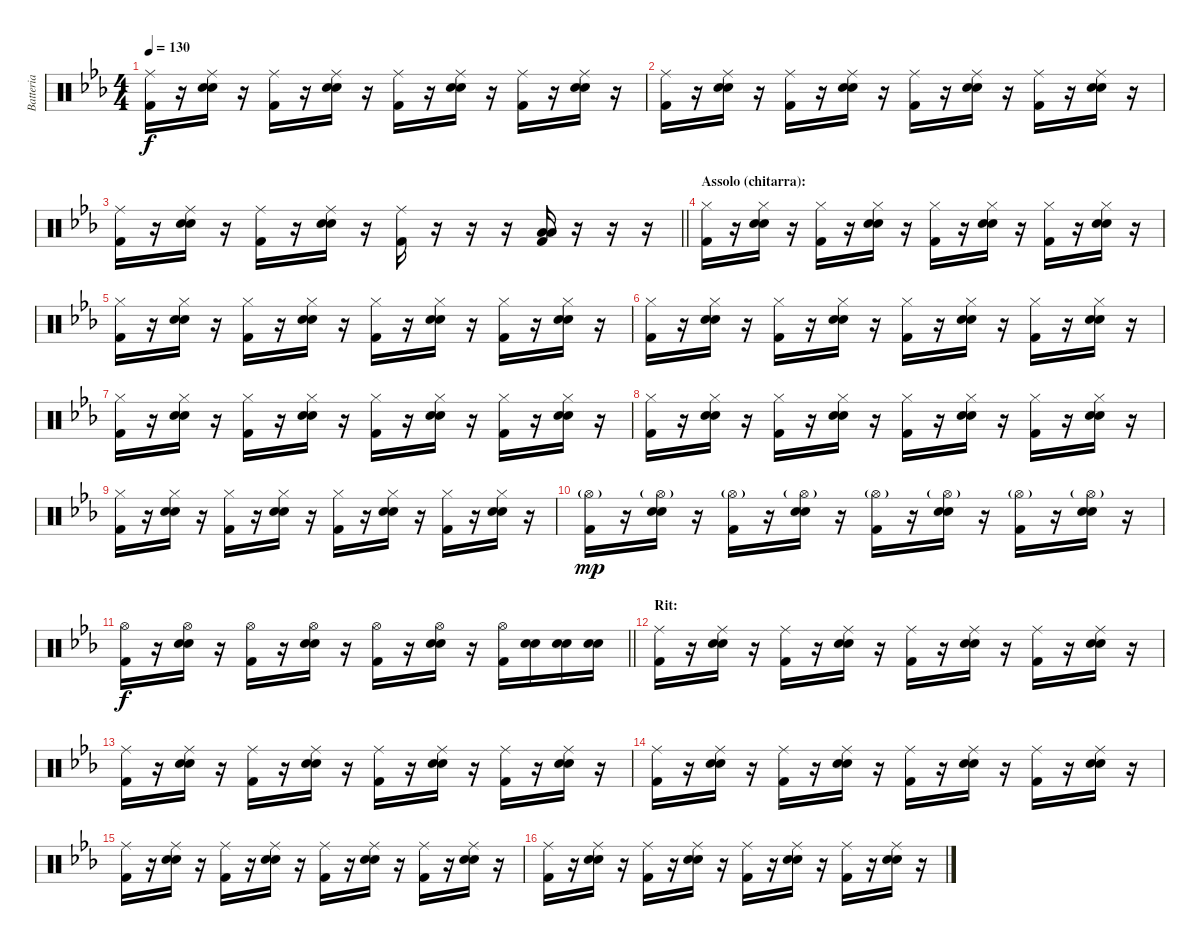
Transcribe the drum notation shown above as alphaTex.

\track ("Batteria" "Batteria") {instrument percussion}
\staff {score}
\articulation defaults
\ts (4 4)
\tempo 130
\clef neutral
\ks eb
("Kick (hit) 2" "Ride (middle)").16{dy f} r.16 ("Snare (hit) 2" "Snare (hit) 2" "Ride (middle)").16 r.16 ("Kick (hit) 2" "Ride (middle)").16 r.16 ("Snare (hit) 2" "Snare (hit) 2" "Ride (middle)").16 r.16 ("Kick (hit) 2" "Ride (middle)").16 r.16 ("Snare (hit) 2" "Snare (hit) 2" "Ride (middle)").16 r.16 ("Kick (hit) 2" "Ride (middle)").16 r.16 ("Snare (hit) 2" "Snare (hit) 2" "Ride (middle)").16 r.16 |
("Kick (hit) 2" "Ride (middle)").16 r.16 ("Snare (hit) 2" "Snare (hit) 2" "Ride (middle)").16 r.16 ("Kick (hit) 2" "Ride (middle)").16 r.16 ("Snare (hit) 2" "Snare (hit) 2" "Ride (middle)").16 r.16 ("Kick (hit) 2" "Ride (middle)").16 r.16 ("Snare (hit) 2" "Snare (hit) 2" "Ride (middle)").16 r.16 ("Kick (hit) 2" "Ride (middle)").16 r.16 ("Snare (hit) 2" "Snare (hit) 2" "Ride (middle)").16 r.16 |
\barLineRight lightlight
("Kick (hit) 2" "Ride (middle)").16 r.16 ("Snare (hit) 2" "Snare (hit) 2" "Ride (middle)").16 r.16 ("Kick (hit) 2" "Ride (middle)").16 r.16 ("Snare (hit) 2" "Snare (hit) 2" "Ride (middle)").16 r.16 ("Kick (hit) 2" "Ride (middle)").16 r.16 r.16 r.16 ("Kick (hit) 2" "Low Floor Tom (hit)" "Low Floor Tom (hit)").16 r.16 r.16 r.16 |
\section ("" "Assolo (chitarra):")
("Kick (hit) 2" "Hi-Hat (closed)").16 r.16 ("Snare (hit) 2" "Snare (hit) 2" "Hi-Hat (closed)").16 r.16 ("Kick (hit) 2" "Hi-Hat (closed)").16 r.16 ("Snare (hit) 2" "Snare (hit) 2" "Hi-Hat (closed)").16 r.16 ("Kick (hit) 2" "Hi-Hat (closed)").16 r.16 ("Snare (hit) 2" "Snare (hit) 2" "Hi-Hat (closed)").16 r.16 ("Kick (hit) 2" "Hi-Hat (closed)").16 r.16 ("Snare (hit) 2" "Snare (hit) 2" "Hi-Hat (closed)").16 r.16 |
("Kick (hit) 2" "Hi-Hat (closed)").16 r.16 ("Snare (hit) 2" "Snare (hit) 2" "Hi-Hat (closed)").16 r.16 ("Kick (hit) 2" "Hi-Hat (closed)").16 r.16 ("Snare (hit) 2" "Snare (hit) 2" "Hi-Hat (closed)").16 r.16 ("Kick (hit) 2" "Hi-Hat (closed)").16 r.16 ("Snare (hit) 2" "Snare (hit) 2" "Hi-Hat (closed)").16 r.16 ("Kick (hit) 2" "Hi-Hat (closed)").16 r.16 ("Snare (hit) 2" "Snare (hit) 2" "Hi-Hat (closed)").16 r.16 |
("Kick (hit) 2" "Hi-Hat (closed)").16 r.16 ("Snare (hit) 2" "Snare (hit) 2" "Hi-Hat (closed)").16 r.16 ("Kick (hit) 2" "Hi-Hat (closed)").16 r.16 ("Snare (hit) 2" "Snare (hit) 2" "Hi-Hat (closed)").16 r.16 ("Kick (hit) 2" "Hi-Hat (closed)").16 r.16 ("Snare (hit) 2" "Snare (hit) 2" "Hi-Hat (closed)").16 r.16 ("Kick (hit) 2" "Hi-Hat (closed)").16 r.16 ("Snare (hit) 2" "Snare (hit) 2" "Hi-Hat (closed)").16 r.16 |
("Kick (hit) 2" "Hi-Hat (closed)").16 r.16 ("Snare (hit) 2" "Snare (hit) 2" "Hi-Hat (closed)").16 r.16 ("Kick (hit) 2" "Hi-Hat (closed)").16 r.16 ("Snare (hit) 2" "Snare (hit) 2" "Hi-Hat (closed)").16 r.16 ("Kick (hit) 2" "Hi-Hat (closed)").16 r.16 ("Snare (hit) 2" "Snare (hit) 2" "Hi-Hat (closed)").16 r.16 ("Kick (hit) 2" "Hi-Hat (closed)").16 r.16 ("Snare (hit) 2" "Snare (hit) 2" "Hi-Hat (closed)").16 r.16 |
("Kick (hit) 2" "Hi-Hat (closed)").16 r.16 ("Snare (hit) 2" "Snare (hit) 2" "Hi-Hat (closed)").16 r.16 ("Kick (hit) 2" "Hi-Hat (closed)").16 r.16 ("Snare (hit) 2" "Snare (hit) 2" "Hi-Hat (closed)").16 r.16 ("Kick (hit) 2" "Hi-Hat (closed)").16 r.16 ("Snare (hit) 2" "Snare (hit) 2" "Hi-Hat (closed)").16 r.16 ("Kick (hit) 2" "Hi-Hat (closed)").16 r.16 ("Snare (hit) 2" "Snare (hit) 2" "Hi-Hat (closed)").16 r.16 |
("Kick (hit) 2" "Hi-Hat (closed)").16 r.16 ("Snare (hit) 2" "Snare (hit) 2" "Hi-Hat (closed)").16 r.16 ("Kick (hit) 2" "Hi-Hat (closed)").16 r.16 ("Snare (hit) 2" "Snare (hit) 2" "Hi-Hat (closed)").16 r.16 ("Kick (hit) 2" "Hi-Hat (closed)").16 r.16 ("Snare (hit) 2" "Snare (hit) 2" "Hi-Hat (closed)").16 r.16 ("Kick (hit) 2" "Hi-Hat (closed)").16 r.16 ("Snare (hit) 2" "Snare (hit) 2" "Hi-Hat (closed)").16 r.16 |
("Kick (hit) 2" "Hi-Hat (open)"{g}).16{dy mp} r.16 ("Snare (hit) 2" "Snare (hit) 2" "Hi-Hat (open)"{g}).16 r.16 ("Kick (hit) 2" "Hi-Hat (open)"{g}).16 r.16 ("Snare (hit) 2" "Snare (hit) 2" "Hi-Hat (open)"{g}).16 r.16 ("Kick (hit) 2" "Hi-Hat (open)"{g}).16 r.16 ("Snare (hit) 2" "Snare (hit) 2" "Hi-Hat (open)"{g}).16 r.16 ("Kick (hit) 2" "Hi-Hat (open)"{g}).16 r.16 ("Snare (hit) 2" "Snare (hit) 2" "Hi-Hat (open)"{g}).16 r.16 |
\barLineRight lightlight
("Kick (hit) 2" "Hi-Hat (open)").16{dy f} r.16 ("Snare (hit) 2" "Snare (hit) 2" "Hi-Hat (open)").16 r.16 ("Kick (hit) 2" "Hi-Hat (open)").16 r.16 ("Snare (hit) 2" "Snare (hit) 2" "Hi-Hat (open)").16 r.16 ("Kick (hit) 2" "Hi-Hat (open)").16 r.16 ("Snare (hit) 2" "Snare (hit) 2" "Hi-Hat (open)").16 r.16 ("Kick (hit) 2" "Hi-Hat (open)").16 ("Snare (hit) 2" "Snare (hit) 2").16 ("Snare (hit) 2" "Snare (hit) 2").16 ("Snare (hit) 2" "Snare (hit) 2").16 |
\section ("" "Rit:")
("Kick (hit) 2" "Ride (middle)").16 r.16 ("Snare (hit) 2" "Snare (hit) 2" "Ride (middle)").16 r.16 ("Kick (hit) 2" "Ride (middle)").16 r.16 ("Snare (hit) 2" "Snare (hit) 2" "Ride (middle)").16 r.16 ("Kick (hit) 2" "Ride (middle)").16 r.16 ("Snare (hit) 2" "Snare (hit) 2" "Ride (middle)").16 r.16 ("Kick (hit) 2" "Ride (middle)").16 r.16 ("Snare (hit) 2" "Snare (hit) 2" "Ride (middle)").16 r.16 |
("Kick (hit) 2" "Ride (middle)").16 r.16 ("Snare (hit) 2" "Snare (hit) 2" "Ride (middle)").16 r.16 ("Kick (hit) 2" "Ride (middle)").16 r.16 ("Snare (hit) 2" "Snare (hit) 2" "Ride (middle)").16 r.16 ("Kick (hit) 2" "Ride (middle)").16 r.16 ("Snare (hit) 2" "Snare (hit) 2" "Ride (middle)").16 r.16 ("Kick (hit) 2" "Ride (middle)").16 r.16 ("Snare (hit) 2" "Snare (hit) 2" "Ride (middle)").16 r.16 |
("Kick (hit) 2" "Ride (middle)").16 r.16 ("Snare (hit) 2" "Snare (hit) 2" "Ride (middle)").16 r.16 ("Kick (hit) 2" "Ride (middle)").16 r.16 ("Snare (hit) 2" "Snare (hit) 2" "Ride (middle)").16 r.16 ("Kick (hit) 2" "Ride (middle)").16 r.16 ("Snare (hit) 2" "Snare (hit) 2" "Ride (middle)").16 r.16 ("Kick (hit) 2" "Ride (middle)").16 r.16 ("Snare (hit) 2" "Snare (hit) 2" "Ride (middle)").16 r.16 |
("Kick (hit) 2" "Ride (middle)").16 r.16 ("Snare (hit) 2" "Snare (hit) 2" "Ride (middle)").16 r.16 ("Kick (hit) 2" "Ride (middle)").16 r.16 ("Snare (hit) 2" "Snare (hit) 2" "Ride (middle)").16 r.16 ("Kick (hit) 2" "Ride (middle)").16 r.16 ("Snare (hit) 2" "Snare (hit) 2" "Ride (middle)").16 r.16 ("Kick (hit) 2" "Ride (middle)").16 r.16 ("Snare (hit) 2" "Snare (hit) 2" "Ride (middle)").16 r.16 |
("Kick (hit) 2" "Ride (middle)").16 r.16 ("Snare (hit) 2" "Snare (hit) 2" "Ride (middle)").16 r.16 ("Kick (hit) 2" "Ride (middle)").16 r.16 ("Snare (hit) 2" "Snare (hit) 2" "Ride (middle)").16 r.16 ("Kick (hit) 2" "Ride (middle)").16 r.16 ("Snare (hit) 2" "Snare (hit) 2" "Ride (middle)").16 r.16 ("Kick (hit) 2" "Ride (middle)").16 r.16 ("Snare (hit) 2" "Snare (hit) 2" "Ride (middle)").16 r.16
